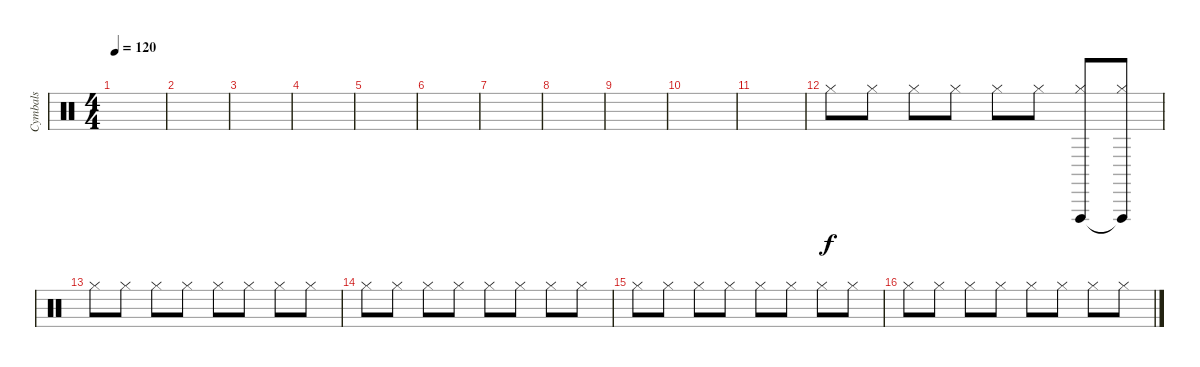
\track ("Cymbals" "Cymbals") {instrument percussion}
\staff {score}
\articulation defaults
\ts (4 4)
\tempo 120
\tempo 130
\tempo 120
\clef neutral
\ks c
|
|
|
|
|
|
|
|
|
|
|
"Hi-Hat (closed)".8 "Hi-Hat (closed)".8 "Hi-Hat (closed)".8 "Hi-Hat (closed)".8 "Hi-Hat (closed)".8 "Hi-Hat (closed)".8 ("Vibraslap (hit)" "Hi-Hat (closed)").8 ("Vibraslap (hit)"{t} "Hi-Hat (closed)").8 |
"Hi-Hat (closed)".8 "Hi-Hat (closed)".8 "Hi-Hat (closed)".8 "Hi-Hat (closed)".8 "Hi-Hat (closed)".8 "Hi-Hat (closed)".8 "Hi-Hat (closed)".8 "Hi-Hat (closed)".8 |
"Hi-Hat (closed)".8 "Hi-Hat (closed)".8 "Hi-Hat (closed)".8 "Hi-Hat (closed)".8 "Hi-Hat (closed)".8 "Hi-Hat (closed)".8 "Hi-Hat (closed)".8 "Hi-Hat (closed)".8 |
"Hi-Hat (closed)".8 "Hi-Hat (closed)".8 "Hi-Hat (closed)".8 "Hi-Hat (closed)".8 "Hi-Hat (closed)".8 "Hi-Hat (closed)".8 "Hi-Hat (closed)".8 "Hi-Hat (closed)".8 |
"Hi-Hat (closed)".8 "Hi-Hat (closed)".8 "Hi-Hat (closed)".8 "Hi-Hat (closed)".8 "Hi-Hat (closed)".8 "Hi-Hat (closed)".8 "Hi-Hat (closed)".8 "Hi-Hat (closed)".8
